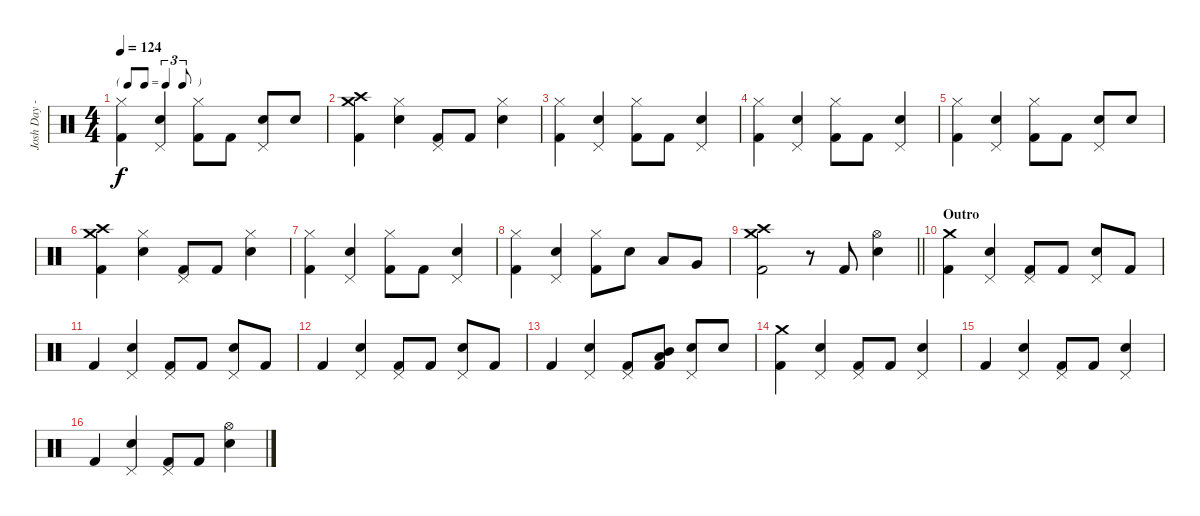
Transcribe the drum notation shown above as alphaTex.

\track ("Josh Day - Drums/Percussion" "Josh Day -") {instrument percussion}
\staff {score}
\articulation defaults
\ts (4 4)
\tf triplet8th
\tempo 124
\clef neutral
\ks c
("Hi-Hat (closed)" "Kick (hit) 2").4{dy f} ("Snare (hit) 2" "Pedal Hi-Hat (hit)").4 ("Hi-Hat (closed)" "Kick (hit) 2").8 "Kick (hit) 2".8 ("Snare (hit) 2" "Pedal Hi-Hat (hit)").8 "Snare (hit) 2".8 |
("Crash medium (hit)" "Crash high (hit)" "Kick (hit) 2").4 ("Snare (hit) 2" "Hi-Hat (closed)").4 ("Pedal Hi-Hat (hit)" "Kick (hit) 2").8 "Kick (hit) 2".8 ("Snare (hit) 2" "Hi-Hat (closed)").4 |
("Hi-Hat (closed)" "Kick (hit) 2").4 ("Snare (hit) 2" "Pedal Hi-Hat (hit)").4 ("Hi-Hat (closed)" "Kick (hit) 2").8 "Kick (hit) 2".8 ("Snare (hit) 2" "Pedal Hi-Hat (hit)").4 |
("Hi-Hat (closed)" "Kick (hit) 2").4 ("Snare (hit) 2" "Pedal Hi-Hat (hit)").4 ("Hi-Hat (closed)" "Kick (hit) 2").8 "Kick (hit) 2".8 ("Snare (hit) 2" "Pedal Hi-Hat (hit)").4 |
("Hi-Hat (closed)" "Kick (hit) 2").4 ("Snare (hit) 2" "Pedal Hi-Hat (hit)").4 ("Hi-Hat (closed)" "Kick (hit) 2").8 "Kick (hit) 2".8 ("Snare (hit) 2" "Pedal Hi-Hat (hit)").8 "Snare (hit) 2".8 |
("Crash medium (hit)" "Crash high (hit)" "Kick (hit) 2").4 ("Snare (hit) 2" "Hi-Hat (closed)").4 ("Pedal Hi-Hat (hit)" "Kick (hit) 2").8 "Kick (hit) 2".8 ("Snare (hit) 2" "Hi-Hat (closed)").4 |
("Hi-Hat (closed)" "Kick (hit) 2").4 ("Snare (hit) 2" "Pedal Hi-Hat (hit)").4 ("Hi-Hat (closed)" "Kick (hit) 2").8 "Kick (hit) 2".8 ("Snare (hit) 2" "Pedal Hi-Hat (hit)").4 |
("Hi-Hat (closed)" "Kick (hit) 2").4 ("Snare (hit) 2" "Pedal Hi-Hat (hit)").4 ("Hi-Hat (closed)" "Kick (hit) 2").8 "Snare (hit) 2".8 "Low Tom (hit)".8 "Very Low Tom (hit)".8 |
\barLineRight lightlight
("Crash medium (hit)" "Crash high (hit)" "Kick (hit) 2").2 r.8 "Kick (hit) 2".8 ("Snare (hit) 2" "Hi-Hat (open)").4 |
\section ("" "Outro")
("Crash medium (hit)" "Kick (hit) 2").4 ("Snare (hit) 2" "Pedal Hi-Hat (hit)").4 ("Pedal Hi-Hat (hit)" "Kick (hit) 2").8 "Kick (hit) 2".8 ("Snare (hit) 2" "Pedal Hi-Hat (hit)").8 "Kick (hit) 2".8 |
"Kick (hit) 2".4 ("Snare (hit) 2" "Pedal Hi-Hat (hit)").4 ("Pedal Hi-Hat (hit)" "Kick (hit) 2").8 "Kick (hit) 2".8 ("Snare (hit) 2" "Pedal Hi-Hat (hit)").8 "Kick (hit) 2".8 |
"Kick (hit) 2".4 ("Snare (hit) 2" "Pedal Hi-Hat (hit)").4 ("Pedal Hi-Hat (hit)" "Kick (hit) 2").8 "Kick (hit) 2".8 ("Snare (hit) 2" "Pedal Hi-Hat (hit)").8 "Kick (hit) 2".8 |
"Kick (hit) 2".4 ("Snare (hit) 2" "Pedal Hi-Hat (hit)").4 ("Pedal Hi-Hat (hit)" "Kick (hit) 2").8 ("Mid Tom (hit)" "Low Tom (hit)" "Kick (hit) 2").8 ("Snare (hit) 2" "Pedal Hi-Hat (hit)").8 "Snare (hit) 2".8 |
("Crash medium (hit)" "Kick (hit) 2").4 ("Snare (hit) 2" "Pedal Hi-Hat (hit)").4 ("Pedal Hi-Hat (hit)" "Kick (hit) 2").8 "Kick (hit) 2".8 ("Snare (hit) 2" "Pedal Hi-Hat (hit)").4 |
"Kick (hit) 2".4 ("Snare (hit) 2" "Pedal Hi-Hat (hit)").4 ("Pedal Hi-Hat (hit)" "Kick (hit) 2").8 "Kick (hit) 2".8 ("Snare (hit) 2" "Pedal Hi-Hat (hit)").4 |
"Kick (hit) 2".4 ("Snare (hit) 2" "Pedal Hi-Hat (hit)").4 ("Pedal Hi-Hat (hit)" "Kick (hit) 2").8 "Kick (hit) 2".8 ("Snare (hit) 2" "Hi-Hat (open)").4
